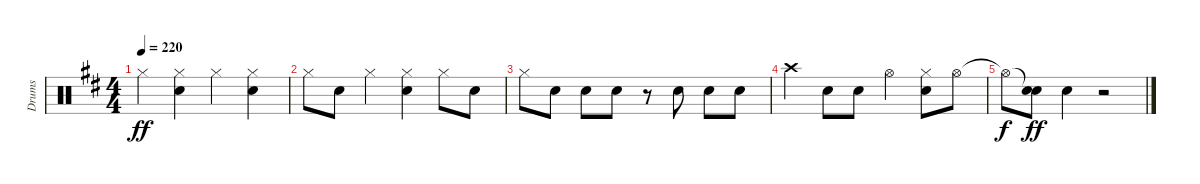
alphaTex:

\track ("Drums" "Drums") {instrument percussion}
\staff {score}
\articulation defaults
\ts (4 4)
\tempo 220
\clef neutral
\ks d "Hi-Hat (closed)".4{dy ff}
("Hi-Hat (closed)" "Snare (hit) 2").4 "Hi-Hat (closed)".4 ("Hi-Hat (closed)" "Snare (hit) 2").4 |
"Hi-Hat (closed)".8 "Snare (hit) 2".8 "Hi-Hat (closed)".4 ("Hi-Hat (closed)" "Snare (hit) 2").4 "Hi-Hat (closed)".8 "Snare (hit) 2".8 |
"Hi-Hat (closed)".8 "Snare (hit) 2".8 "Snare (hit) 2".8 "Snare (hit) 2".8 r.8 "Snare (hit) 2".8 "Snare (hit) 2".8 "Snare (hit) 2".8 |
"Crash high (hit)".4 "Snare (hit) 2".8 "Snare (hit) 2".8 "Hi-Hat (open)".4 ("Hi-Hat (closed)" "Snare (hit) 2").8 "Hi-Hat (open)".8 |
"Hi-Hat (open)"{t}.8{dy f} ("Snare (hit)"{t} "Snare (hit) 2").8{dy ff} "Snare (hit) 2".4 r.2
